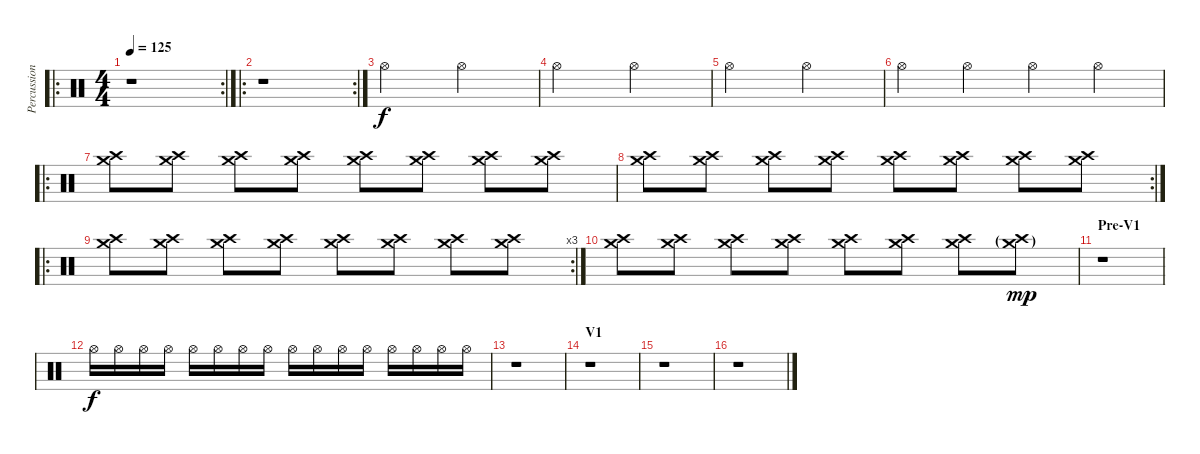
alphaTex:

\track ("Percussion" "Percussion") {instrument percussion}
\staff {score}
\articulation defaults
\ro
\rc 2
\ts (4 4)
\tempo 125
\clef neutral
\ks c
r.1{dy f} |
\ro
\rc 2
r.1 |
"Hi-Hat (open)".2 "Hi-Hat (open)".2 |
"Hi-Hat (open)".2 "Hi-Hat (open)".2 |
"Hi-Hat (open)".2 "Hi-Hat (open)".2 |
"Hi-Hat (open)".4 "Hi-Hat (open)".4 "Hi-Hat (open)".4 "Hi-Hat (open)".4 |
\ro
("Crash high (hit)" "Crash medium (hit)").8 ("Crash high (hit)" "Crash medium (hit)").8 ("Crash high (hit)" "Crash medium (hit)").8 ("Crash high (hit)" "Crash medium (hit)").8 ("Crash high (hit)" "Crash medium (hit)").8 ("Crash high (hit)" "Crash medium (hit)").8 ("Crash high (hit)" "Crash medium (hit)").8 ("Crash high (hit)" "Crash medium (hit)").8 |
\rc 2
("Crash high (hit)" "Crash medium (hit)").8 ("Crash high (hit)" "Crash medium (hit)").8 ("Crash high (hit)" "Crash medium (hit)").8 ("Crash high (hit)" "Crash medium (hit)").8 ("Crash high (hit)" "Crash medium (hit)").8 ("Crash high (hit)" "Crash medium (hit)").8 ("Crash high (hit)" "Crash medium (hit)").8 ("Crash high (hit)" "Crash medium (hit)").8 |
\ro
\rc 3
("Crash high (hit)" "Crash medium (hit)").8 ("Crash high (hit)" "Crash medium (hit)").8 ("Crash high (hit)" "Crash medium (hit)").8 ("Crash high (hit)" "Crash medium (hit)").8 ("Crash high (hit)" "Crash medium (hit)").8 ("Crash high (hit)" "Crash medium (hit)").8 ("Crash high (hit)" "Crash medium (hit)").8 ("Crash high (hit)" "Crash medium (hit)").8 |
("Crash high (hit)" "Crash medium (hit)").8 ("Crash high (hit)" "Crash medium (hit)").8 ("Crash high (hit)" "Crash medium (hit)").8 ("Crash high (hit)" "Crash medium (hit)").8 ("Crash high (hit)" "Crash medium (hit)").8 ("Crash high (hit)" "Crash medium (hit)").8 ("Crash high (hit)" "Crash medium (hit)").8 ("Crash high (hit)"{g} "Crash medium (hit)"{g}).8{dy mp} |
\section ("" "Pre-V1")
r.1 |
"Hi-Hat (open)".16{dy f} "Hi-Hat (open)".16 "Hi-Hat (open)".16 "Hi-Hat (open)".16 "Hi-Hat (open)".16 "Hi-Hat (open)".16 "Hi-Hat (open)".16 "Hi-Hat (open)".16 "Hi-Hat (open)".16 "Hi-Hat (open)".16 "Hi-Hat (open)".16 "Hi-Hat (open)".16 "Hi-Hat (open)".16 "Hi-Hat (open)".16 "Hi-Hat (open)".16 "Hi-Hat (open)".16 |
r.1 |
\section ("" "V1")
r.1 |
r.1 |
r.1
